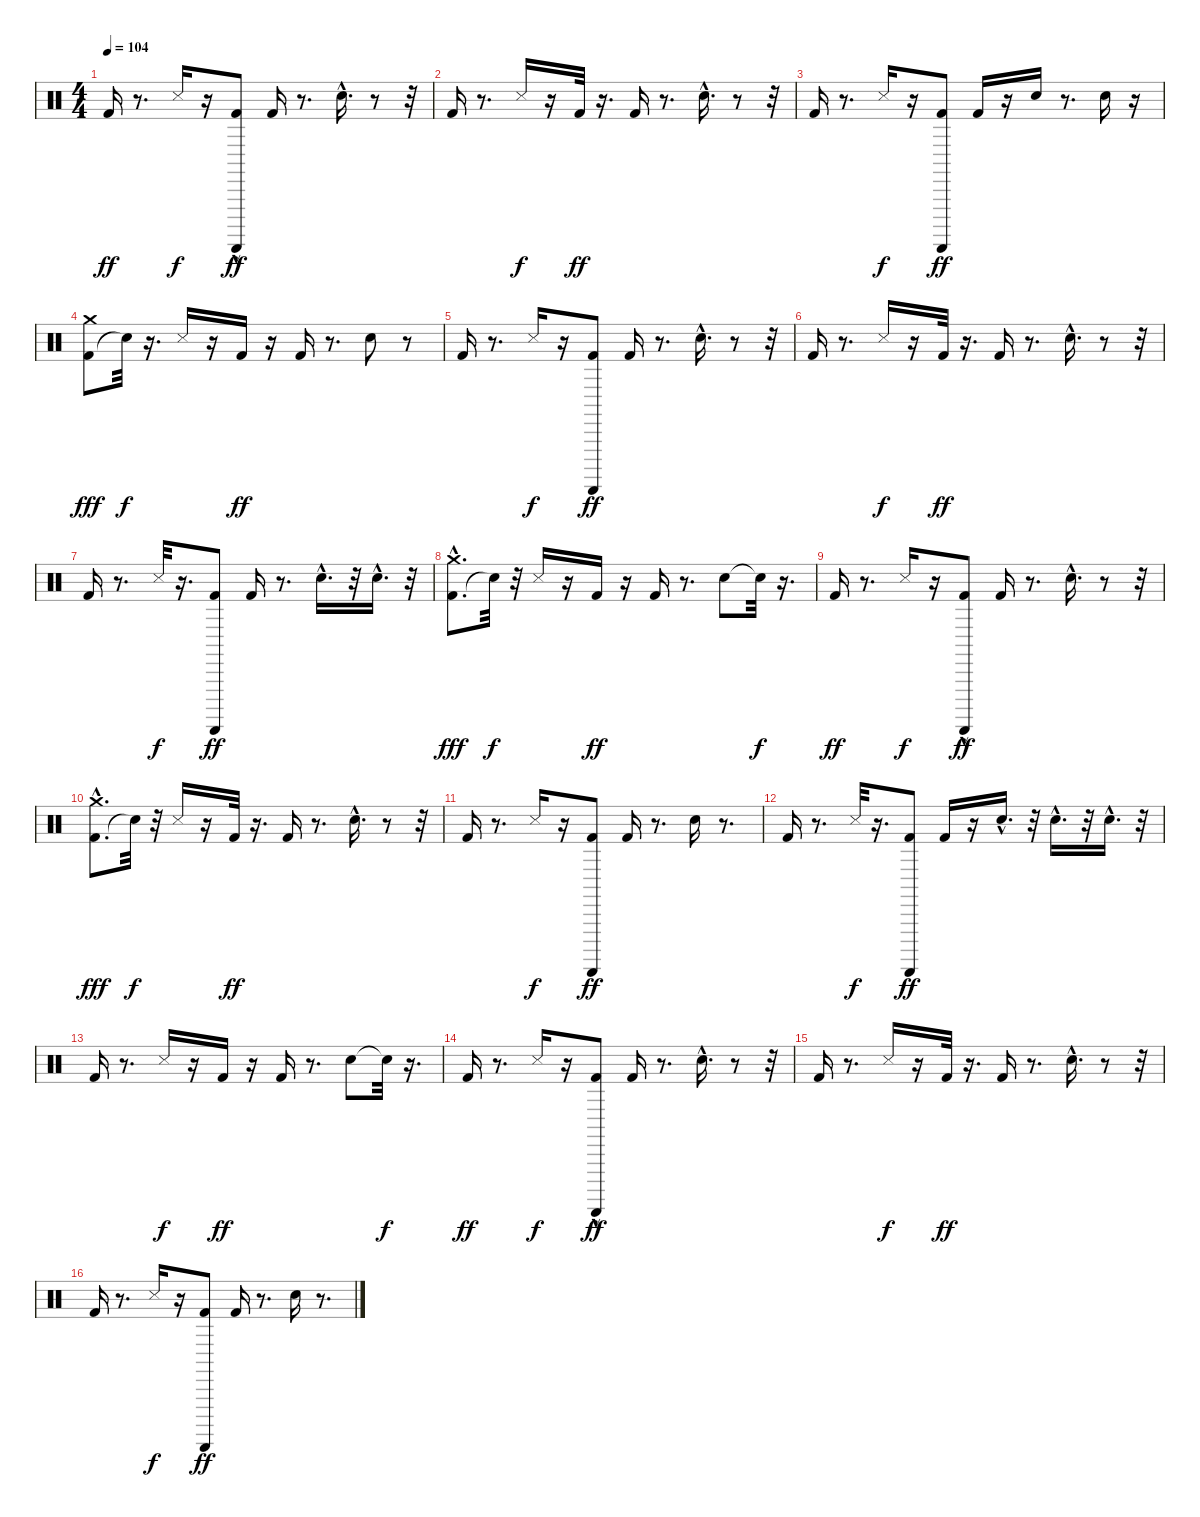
\track "" {instrument percussion}
\staff {score}
\articulation defaults
\ts (4 4)
\tempo 104
\clef neutral
\ks c "Kick (hit) 2".16{dy ff}
r.8{d} "Snare (side stick) 3".16{dy f} r.16 ("Kick (hit) 2" "Guiro (scrap-return)"{hac}).8{dy ff} "Kick (hit) 2".16 r.8{d} "Snare (hit) 2"{hac}.16{d} r.8 r.32 |
"Kick (hit) 2".16 r.8{d} "Snare (side stick) 3".16{dy f} r.16 "Kick (hit) 2".32{dy ff} r.16{d} "Kick (hit) 2".16 r.8{d} "Snare (hit) 2"{hac}.16{d} r.8 r.32 |
"Kick (hit) 2".16 r.8{d} "Snare (side stick) 3".16{dy f} r.16 ("Kick (hit) 2" "Guiro (scrap-return)").8{dy ff} "Kick (hit) 2".16 r.16 "Snare (hit) 2".16 r.8{d} "Snare (hit) 2".16 r.16 |
("Kick (hit) 2" "Crash medium (hit)").8{dy fff} "Snare (hit)"{t}.32{dy f} r.16{d} "Snare (side stick) 3".16 r.16 "Kick (hit) 2".16{dy ff} r.16 "Kick (hit) 2".16 r.8{d} "Snare (hit) 2".8 r.8 |
"Kick (hit) 2".16 r.8{d} "Snare (side stick) 3".16{dy f} r.16 ("Kick (hit) 2" "Guiro (scrap-return)").8{dy ff} "Kick (hit) 2".16 r.8{d} "Snare (hit) 2"{hac}.16{d} r.8 r.32 |
"Kick (hit) 2".16 r.8{d} "Snare (side stick) 3".16{dy f} r.16 "Kick (hit) 2".32{dy ff} r.16{d} "Kick (hit) 2".16 r.8{d} "Snare (hit) 2"{hac}.16{d} r.8 r.32 |
"Kick (hit) 2".16 r.8{d} "Snare (side stick) 3".32{dy f} r.16{d} ("Kick (hit) 2" "Guiro (scrap-return)").8{dy ff} "Kick (hit) 2".16 r.8{d} "Snare (hit) 2"{hac}.16{d} r.32 "Snare (hit) 2"{hac}.16{d} r.32 |
("Kick (hit) 2" "Crash medium (hit)"{hac}).8{d dy fff} "Snare (hit)"{t}.32{dy f} r.32 "Snare (side stick) 3".16 r.16 "Kick (hit) 2".16{dy ff} r.16 "Kick (hit) 2".16 r.8{d} "Snare (hit) 2".8 "Snare (hit)"{t}.32{dy f} r.16{d} |
"Kick (hit) 2".16{dy ff} r.8{d} "Snare (side stick) 3".16{dy f} r.16 ("Kick (hit) 2" "Guiro (scrap-return)"{hac}).8{dy ff} "Kick (hit) 2".16 r.8{d} "Snare (hit) 2"{hac}.16{d} r.8 r.32 |
("Kick (hit) 2" "Crash medium (hit)"{hac}).8{d dy fff} "Snare (hit)"{t}.32{dy f} r.32 "Snare (side stick) 3".16 r.16 "Kick (hit) 2".32{dy ff} r.16{d} "Kick (hit) 2".16 r.8{d} "Snare (hit) 2"{hac}.16{d} r.8 r.32 |
"Kick (hit) 2".16 r.8{d} "Snare (side stick) 3".16{dy f} r.16 ("Kick (hit) 2" "Guiro (scrap-return)").8{dy ff} "Kick (hit) 2".16 r.8{d} "Snare (hit) 2".16 r.8{d} |
"Kick (hit) 2".16 r.8{d} "Snare (side stick) 3".32{dy f} r.16{d} ("Kick (hit) 2" "Guiro (scrap-return)").8{dy ff} "Kick (hit) 2".16 r.16 "Snare (hit) 2"{hac}.16{d} r.32 "Snare (hit) 2"{hac}.16{d} r.32 "Snare (hit) 2"{hac}.16{d} r.32 |
"Kick (hit) 2".16 r.8{d} "Snare (side stick) 3".16{dy f} r.16 "Kick (hit) 2".16{dy ff} r.16 "Kick (hit) 2".16 r.8{d} "Snare (hit) 2".8 "Snare (hit)"{t}.32{dy f} r.16{d} |
"Kick (hit) 2".16{dy ff} r.8{d} "Snare (side stick) 3".16{dy f} r.16 ("Kick (hit) 2" "Guiro (scrap-return)"{hac}).8{dy ff} "Kick (hit) 2".16 r.8{d} "Snare (hit) 2"{hac}.16{d} r.8 r.32 |
"Kick (hit) 2".16 r.8{d} "Snare (side stick) 3".16{dy f} r.16 "Kick (hit) 2".32{dy ff} r.16{d} "Kick (hit) 2".16 r.8{d} "Snare (hit) 2"{hac}.16{d} r.8 r.32 |
"Kick (hit) 2".16 r.8{d} "Snare (side stick) 3".16{dy f} r.16 ("Kick (hit) 2" "Guiro (scrap-return)").8{dy ff} "Kick (hit) 2".16 r.8{d} "Snare (hit) 2".16 r.8{d}
